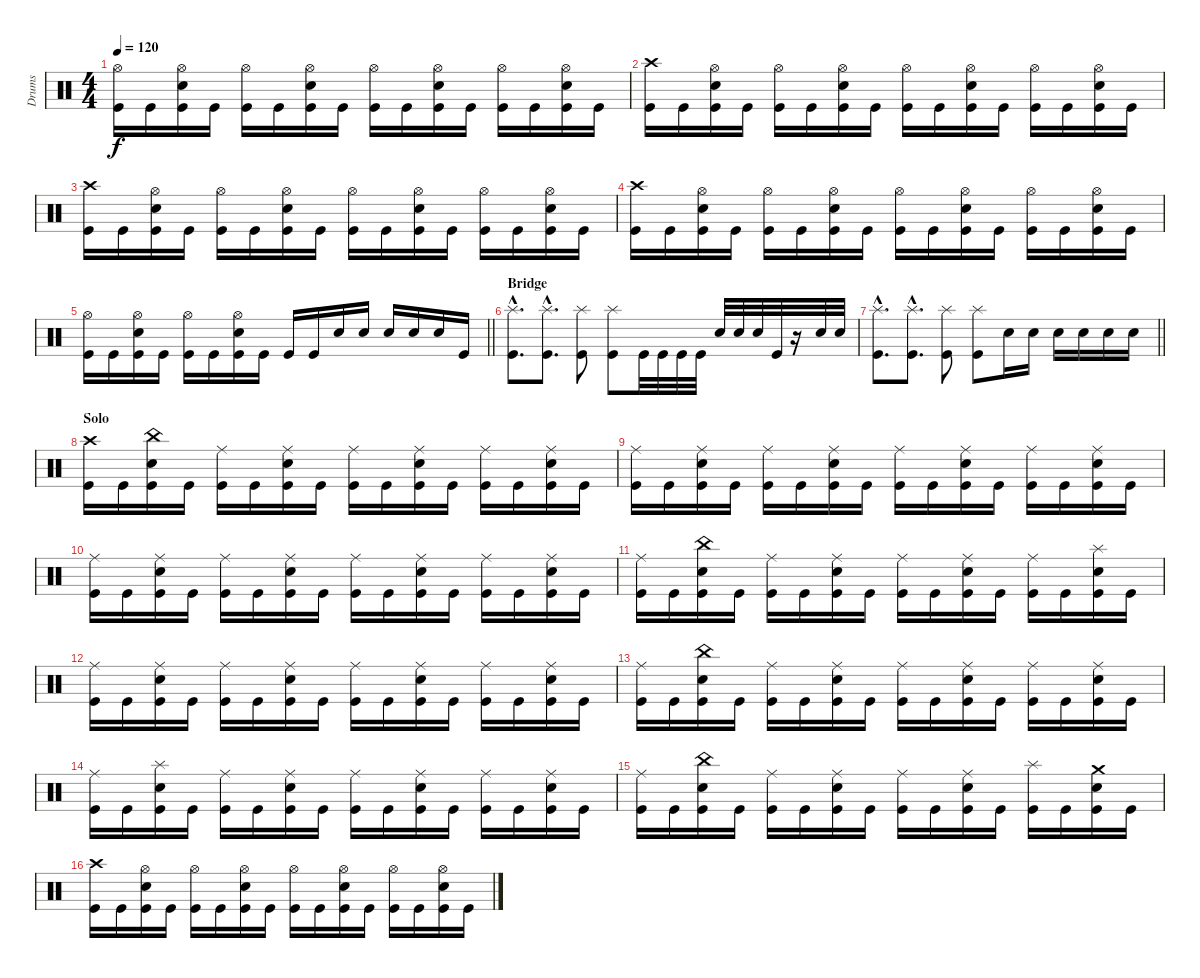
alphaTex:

\track ("Drums" "Drums") {instrument percussion}
\staff {score}
\articulation defaults
\ts (4 4)
\tempo 120
\clef neutral
\ks c
("Hi-Hat (open)" "Kick (hit)").16{dy f} "Kick (hit)".16 ("Hi-Hat (open)" "Electric Snare (hit)" "Kick (hit)").16 "Kick (hit)".16 ("Hi-Hat (open)" "Kick (hit)").16 "Kick (hit)".16 ("Hi-Hat (open)" "Electric Snare (hit)" "Kick (hit)").16 "Kick (hit)".16 ("Hi-Hat (open)" "Kick (hit)").16 "Kick (hit)".16 ("Hi-Hat (open)" "Electric Snare (hit)" "Kick (hit)").16 "Kick (hit)".16 ("Hi-Hat (open)" "Kick (hit)").16 "Kick (hit)".16 ("Hi-Hat (open)" "Electric Snare (hit)" "Kick (hit)").16 "Kick (hit)".16 |
("Crash high (hit)" "Kick (hit)").16 "Kick (hit)".16 ("Hi-Hat (open)" "Electric Snare (hit)" "Kick (hit)").16 "Kick (hit)".16 ("Hi-Hat (open)" "Kick (hit)").16 "Kick (hit)".16 ("Hi-Hat (open)" "Electric Snare (hit)" "Kick (hit)").16 "Kick (hit)".16 ("Hi-Hat (open)" "Kick (hit)").16 "Kick (hit)".16 ("Hi-Hat (open)" "Electric Snare (hit)" "Kick (hit)").16 "Kick (hit)".16 ("Hi-Hat (open)" "Kick (hit)").16 "Kick (hit)".16 ("Hi-Hat (open)" "Electric Snare (hit)" "Kick (hit)").16 "Kick (hit)".16 |
("Crash high (hit)" "Kick (hit)").16 "Kick (hit)".16 ("Hi-Hat (open)" "Electric Snare (hit)" "Kick (hit)").16 "Kick (hit)".16 ("Hi-Hat (open)" "Kick (hit)").16 "Kick (hit)".16 ("Hi-Hat (open)" "Electric Snare (hit)" "Kick (hit)").16 "Kick (hit)".16 ("Hi-Hat (open)" "Kick (hit)").16 "Kick (hit)".16 ("Hi-Hat (open)" "Electric Snare (hit)" "Kick (hit)").16 "Kick (hit)".16 ("Hi-Hat (open)" "Kick (hit)").16 "Kick (hit)".16 ("Hi-Hat (open)" "Electric Snare (hit)" "Kick (hit)").16 "Kick (hit)".16 |
("Crash high (hit)" "Kick (hit)").16 "Kick (hit)".16 ("Hi-Hat (open)" "Electric Snare (hit)" "Kick (hit)").16 "Kick (hit)".16 ("Hi-Hat (open)" "Kick (hit)").16 "Kick (hit)".16 ("Hi-Hat (open)" "Electric Snare (hit)" "Kick (hit)").16 "Kick (hit)".16 ("Hi-Hat (open)" "Kick (hit)").16 "Kick (hit)".16 ("Hi-Hat (open)" "Electric Snare (hit)" "Kick (hit)").16 "Kick (hit)".16 ("Hi-Hat (open)" "Kick (hit)").16 "Kick (hit)".16 ("Hi-Hat (open)" "Electric Snare (hit)" "Kick (hit)").16 "Kick (hit)".16 |
\barLineRight lightlight
("Hi-Hat (open)" "Kick (hit)").16 "Kick (hit)".16 ("Hi-Hat (open)" "Electric Snare (hit)" "Kick (hit)").16 "Kick (hit)".16 ("Hi-Hat (open)" "Kick (hit)").16 "Kick (hit)".16 ("Hi-Hat (open)" "Electric Snare (hit)" "Kick (hit)").16 "Kick (hit)".16 "Kick (hit)".16 "Kick (hit)".16 "Electric Snare (hit)".16 "Electric Snare (hit)".16 "Electric Snare (hit)".16 "Electric Snare (hit)".16 "Electric Snare (hit)".16 "Kick (hit)".16 |
\section ("" "Bridge")
("Splash (hit)"{hac} "Kick (hit)"{hac}).8{d} ("Splash (hit)"{hac} "Kick (hit)"{hac}).8{d} ("Splash (hit)" "Kick (hit)").8 ("Splash (hit)" "Kick (hit)").8 "Kick (hit)".32 "Kick (hit)".32 "Kick (hit)".32 "Kick (hit)".32 "Electric Snare (hit)".32 "Electric Snare (hit)".32 "Electric Snare (hit)".32 "Kick (hit)".32 r.16 "Electric Snare (hit)".32 "Electric Snare (hit)".32 |
\barLineRight lightlight
("Splash (hit)"{hac} "Kick (hit)"{hac}).8{d} ("Splash (hit)"{hac} "Kick (hit)"{hac}).8{d} ("Splash (hit)" "Kick (hit)").8 ("Splash (hit)" "Kick (hit)").8 "Electric Snare (hit)".16 "Electric Snare (hit)".16 "Electric Snare (hit)".16 "Electric Snare (hit)".16 "Electric Snare (hit)".16 "Electric Snare (hit)".16 |
\section ("" "Solo")
("Crash high (hit)" "Kick (hit)").16 "Kick (hit)".16 ("China (hit)" "Electric Snare (hit)" "Kick (hit)").16 "Kick (hit)".16 ("Ride (middle)" "Kick (hit)").16 "Kick (hit)".16 ("Ride (middle)" "Electric Snare (hit)" "Kick (hit)").16 "Kick (hit)".16 ("Ride (middle)" "Kick (hit)").16 "Kick (hit)".16 ("Ride (middle)" "Electric Snare (hit)" "Kick (hit)").16 "Kick (hit)".16 ("Ride (middle)" "Kick (hit)").16 "Kick (hit)".16 ("Ride (middle)" "Electric Snare (hit)" "Kick (hit)").16 "Kick (hit)".16 |
("Ride (middle)" "Kick (hit)").16 "Kick (hit)".16 ("Ride (middle)" "Electric Snare (hit)" "Kick (hit)").16 "Kick (hit)".16 ("Ride (middle)" "Kick (hit)").16 "Kick (hit)".16 ("Ride (middle)" "Electric Snare (hit)" "Kick (hit)").16 "Kick (hit)".16 ("Ride (middle)" "Kick (hit)").16 "Kick (hit)".16 ("Ride (middle)" "Electric Snare (hit)" "Kick (hit)").16 "Kick (hit)".16 ("Ride (middle)" "Kick (hit)").16 "Kick (hit)".16 ("Ride (middle)" "Electric Snare (hit)" "Kick (hit)").16 "Kick (hit)".16 |
("Ride (middle)" "Kick (hit)").16 "Kick (hit)".16 ("Ride (middle)" "Electric Snare (hit)" "Kick (hit)").16 "Kick (hit)".16 ("Ride (middle)" "Kick (hit)").16 "Kick (hit)".16 ("Ride (middle)" "Electric Snare (hit)" "Kick (hit)").16 "Kick (hit)".16 ("Ride (middle)" "Kick (hit)").16 "Kick (hit)".16 ("Ride (middle)" "Electric Snare (hit)" "Kick (hit)").16 "Kick (hit)".16 ("Ride (middle)" "Kick (hit)").16 "Kick (hit)".16 ("Ride (middle)" "Electric Snare (hit)" "Kick (hit)").16 "Kick (hit)".16 |
("Ride (middle)" "Kick (hit)").16 "Kick (hit)".16 ("China (hit)" "Electric Snare (hit)" "Kick (hit)").16 "Kick (hit)".16 ("Ride (middle)" "Kick (hit)").16 "Kick (hit)".16 ("Ride (middle)" "Electric Snare (hit)" "Kick (hit)").16 "Kick (hit)".16 ("Ride (middle)" "Kick (hit)").16 "Kick (hit)".16 ("Ride (middle)" "Electric Snare (hit)" "Kick (hit)").16 "Kick (hit)".16 ("Ride (middle)" "Kick (hit)").16 "Kick (hit)".16 ("Splash (hit)" "Electric Snare (hit)" "Kick (hit)").16 "Kick (hit)".16 |
("Ride (middle)" "Kick (hit)").16 "Kick (hit)".16 ("Ride (middle)" "Electric Snare (hit)" "Kick (hit)").16 "Kick (hit)".16 ("Ride (middle)" "Kick (hit)").16 "Kick (hit)".16 ("Ride (middle)" "Electric Snare (hit)" "Kick (hit)").16 "Kick (hit)".16 ("Ride (middle)" "Kick (hit)").16 "Kick (hit)".16 ("Ride (middle)" "Electric Snare (hit)" "Kick (hit)").16 "Kick (hit)".16 ("Ride (middle)" "Kick (hit)").16 "Kick (hit)".16 ("Ride (middle)" "Electric Snare (hit)" "Kick (hit)").16 "Kick (hit)".16 |
("Ride (middle)" "Kick (hit)").16 "Kick (hit)".16 ("China (hit)" "Electric Snare (hit)" "Kick (hit)").16 "Kick (hit)".16 ("Ride (middle)" "Kick (hit)").16 "Kick (hit)".16 ("Ride (middle)" "Electric Snare (hit)" "Kick (hit)").16 "Kick (hit)".16 ("Ride (middle)" "Kick (hit)").16 "Kick (hit)".16 ("Ride (middle)" "Electric Snare (hit)" "Kick (hit)").16 "Kick (hit)".16 ("Ride (middle)" "Kick (hit)").16 "Kick (hit)".16 ("Ride (middle)" "Electric Snare (hit)" "Kick (hit)").16 "Kick (hit)".16 |
("Ride (middle)" "Kick (hit)").16 "Kick (hit)".16 ("Splash (hit)" "Electric Snare (hit)" "Kick (hit)").16 "Kick (hit)".16 ("Ride (middle)" "Kick (hit)").16 "Kick (hit)".16 ("Ride (middle)" "Electric Snare (hit)" "Kick (hit)").16 "Kick (hit)".16 ("Ride (middle)" "Kick (hit)").16 "Kick (hit)".16 ("Ride (middle)" "Electric Snare (hit)" "Kick (hit)").16 "Kick (hit)".16 ("Ride (middle)" "Kick (hit)").16 "Kick (hit)".16 ("Ride (middle)" "Electric Snare (hit)" "Kick (hit)").16 "Kick (hit)".16 |
("Ride (middle)" "Kick (hit)").16 "Kick (hit)".16 ("China (hit)" "Electric Snare (hit)" "Kick (hit)").16 "Kick (hit)".16 ("Ride (middle)" "Kick (hit)").16 "Kick (hit)".16 ("Ride (middle)" "Electric Snare (hit)" "Kick (hit)").16 "Kick (hit)".16 ("Ride (middle)" "Kick (hit)").16 "Kick (hit)".16 ("Ride (middle)" "Electric Snare (hit)" "Kick (hit)").16 "Kick (hit)".16 ("Splash (hit)" "Kick (hit)").16 "Kick (hit)".16 ("Crash medium (hit)" "Electric Snare (hit)" "Kick (hit)").16 "Kick (hit)".16 |
("Crash high (hit)" "Kick (hit)").16 "Kick (hit)".16 ("Hi-Hat (open)" "Electric Snare (hit)" "Kick (hit)").16 "Kick (hit)".16 ("Hi-Hat (open)" "Kick (hit)").16 "Kick (hit)".16 ("Hi-Hat (open)" "Electric Snare (hit)" "Kick (hit)").16 "Kick (hit)".16 ("Hi-Hat (open)" "Kick (hit)").16 "Kick (hit)".16 ("Hi-Hat (open)" "Electric Snare (hit)" "Kick (hit)").16 "Kick (hit)".16 ("Hi-Hat (open)" "Kick (hit)").16 "Kick (hit)".16 ("Hi-Hat (open)" "Electric Snare (hit)" "Kick (hit)").16 "Kick (hit)".16
